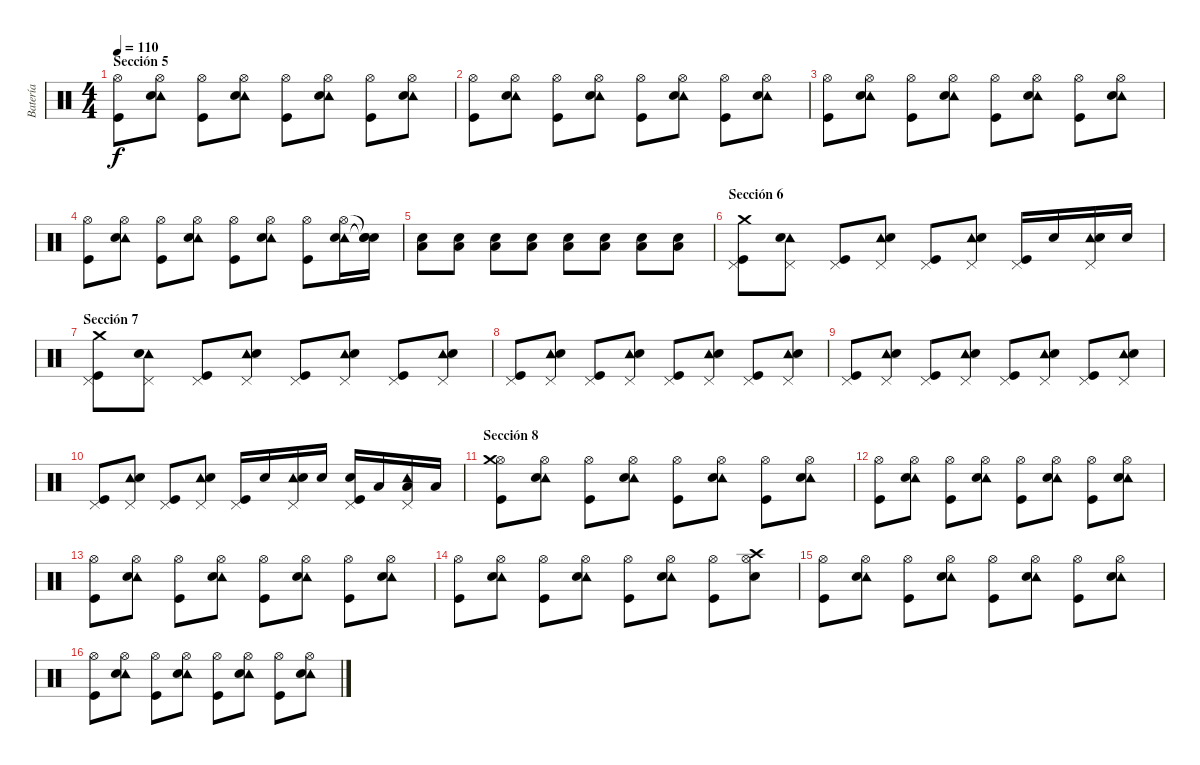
\track ("Batería" "Batería") {instrument percussion}
\staff {score}
\articulation defaults
\ts (4 4)
\section ("" "Sección 5")
\tempo 110
\clef neutral
\ks c
("Hi-Hat (open)" "Kick (hit)").8{dy f} ("Hi-Hat (open)" "Tambourine (hit)" "Electric Snare (hit)").8 ("Hi-Hat (open)" "Kick (hit)").8 ("Hi-Hat (open)" "Tambourine (hit)" "Electric Snare (hit)").8 ("Hi-Hat (open)" "Kick (hit)").8 ("Hi-Hat (open)" "Tambourine (hit)" "Electric Snare (hit)").8 ("Hi-Hat (open)" "Kick (hit)").8 ("Hi-Hat (open)" "Tambourine (hit)" "Electric Snare (hit)").8 |
("Hi-Hat (open)" "Kick (hit)").8 ("Hi-Hat (open)" "Tambourine (hit)" "Electric Snare (hit)").8 ("Hi-Hat (open)" "Kick (hit)").8 ("Hi-Hat (open)" "Tambourine (hit)" "Electric Snare (hit)").8 ("Hi-Hat (open)" "Kick (hit)").8 ("Hi-Hat (open)" "Tambourine (hit)" "Electric Snare (hit)").8 ("Hi-Hat (open)" "Kick (hit)").8 ("Hi-Hat (open)" "Tambourine (hit)" "Electric Snare (hit)").8 |
("Hi-Hat (open)" "Kick (hit)").8 ("Hi-Hat (open)" "Tambourine (hit)" "Electric Snare (hit)").8 ("Hi-Hat (open)" "Kick (hit)").8 ("Hi-Hat (open)" "Tambourine (hit)" "Electric Snare (hit)").8 ("Hi-Hat (open)" "Kick (hit)").8 ("Hi-Hat (open)" "Tambourine (hit)" "Electric Snare (hit)").8 ("Hi-Hat (open)" "Kick (hit)").8 ("Hi-Hat (open)" "Tambourine (hit)" "Electric Snare (hit)").8 |
("Hi-Hat (open)" "Kick (hit)").8 ("Hi-Hat (open)" "Tambourine (hit)" "Electric Snare (hit)").8 ("Hi-Hat (open)" "Kick (hit)").8 ("Hi-Hat (open)" "Tambourine (hit)" "Electric Snare (hit)").8 ("Hi-Hat (open)" "Kick (hit)").8 ("Hi-Hat (open)" "Tambourine (hit)" "Electric Snare (hit)").8 ("Hi-Hat (open)" "Kick (hit)").8 ("Hi-Hat (open)" "Tambourine (hit)" "Electric Snare (hit)").16 ("Snare (hit)"{t} "Snare (hit)"{t} "Snare (hit)"{t}).16{volume 5} |
("Low Tom (hit)" "Electric Snare (hit)").8 ("Low Tom (hit)" "Electric Snare (hit)").8{volume 12} ("Low Tom (hit)" "Electric Snare (hit)").8 ("Low Tom (hit)" "Electric Snare (hit)").8 ("Low Tom (hit)" "Electric Snare (hit)").8 ("Low Tom (hit)" "Electric Snare (hit)").8 ("Low Tom (hit)" "Electric Snare (hit)").8 ("Low Tom (hit)" "Electric Snare (hit)").8 |
\section ("" "Sección 6")
("Pedal Hi-Hat (hit)" "Crash medium (hit)" "Kick (hit)").8 ("Pedal Hi-Hat (hit)" "Tambourine (hit)" "Electric Snare (hit)").8 ("Pedal Hi-Hat (hit)" "Kick (hit)").8 ("Pedal Hi-Hat (hit)" "Tambourine (hit)" "Electric Snare (hit)").8 ("Pedal Hi-Hat (hit)" "Kick (hit)").8 ("Pedal Hi-Hat (hit)" "Tambourine (hit)" "Electric Snare (hit)").8 ("Pedal Hi-Hat (hit)" "Kick (hit)").16 "Electric Snare (hit)".16 ("Pedal Hi-Hat (hit)" "Tambourine (hit)" "Electric Snare (hit)").16 "Electric Snare (hit)".16 |
\section ("" "Sección 7")
("Pedal Hi-Hat (hit)" "Crash medium (hit)" "Kick (hit)").8 ("Pedal Hi-Hat (hit)" "Tambourine (hit)" "Electric Snare (hit)").8 ("Pedal Hi-Hat (hit)" "Kick (hit)").8 ("Pedal Hi-Hat (hit)" "Tambourine (hit)" "Electric Snare (hit)").8 ("Pedal Hi-Hat (hit)" "Kick (hit)").8 ("Pedal Hi-Hat (hit)" "Tambourine (hit)" "Electric Snare (hit)").8 ("Pedal Hi-Hat (hit)" "Kick (hit)").8 ("Pedal Hi-Hat (hit)" "Tambourine (hit)" "Electric Snare (hit)").8 |
("Pedal Hi-Hat (hit)" "Kick (hit)").8 ("Pedal Hi-Hat (hit)" "Tambourine (hit)" "Electric Snare (hit)").8 ("Pedal Hi-Hat (hit)" "Kick (hit)").8 ("Pedal Hi-Hat (hit)" "Tambourine (hit)" "Electric Snare (hit)").8 ("Pedal Hi-Hat (hit)" "Kick (hit)").8 ("Pedal Hi-Hat (hit)" "Tambourine (hit)" "Electric Snare (hit)").8 ("Pedal Hi-Hat (hit)" "Kick (hit)").8 ("Pedal Hi-Hat (hit)" "Tambourine (hit)" "Electric Snare (hit)").8 |
("Pedal Hi-Hat (hit)" "Kick (hit)").8 ("Pedal Hi-Hat (hit)" "Tambourine (hit)" "Electric Snare (hit)").8 ("Pedal Hi-Hat (hit)" "Kick (hit)").8 ("Pedal Hi-Hat (hit)" "Tambourine (hit)" "Electric Snare (hit)").8 ("Pedal Hi-Hat (hit)" "Kick (hit)").8 ("Pedal Hi-Hat (hit)" "Tambourine (hit)" "Electric Snare (hit)").8 ("Pedal Hi-Hat (hit)" "Kick (hit)").8 ("Pedal Hi-Hat (hit)" "Tambourine (hit)" "Electric Snare (hit)").8 |
("Pedal Hi-Hat (hit)" "Kick (hit)").8 ("Pedal Hi-Hat (hit)" "Tambourine (hit)" "Electric Snare (hit)").8 ("Pedal Hi-Hat (hit)" "Kick (hit)").8 ("Pedal Hi-Hat (hit)" "Tambourine (hit)" "Electric Snare (hit)").8 ("Pedal Hi-Hat (hit)" "Kick (hit)").16 "Electric Snare (hit)".16 ("Pedal Hi-Hat (hit)" "Tambourine (hit)" "Electric Snare (hit)").16 "Electric Snare (hit)".16 ("Pedal Hi-Hat (hit)" "Electric Snare (hit)" "Kick (hit)").16 "Low Tom (hit)".16 ("Pedal Hi-Hat (hit)" "Tambourine (hit)" "Low Tom (hit)").16 "Low Tom (hit)".16 |
\section ("" "Sección 8")
("Hi-Hat (open)" "Crash medium (hit)" "Kick (hit)").8 ("Hi-Hat (open)" "Tambourine (hit)" "Electric Snare (hit)").8 ("Hi-Hat (open)" "Kick (hit)").8 ("Hi-Hat (open)" "Tambourine (hit)" "Electric Snare (hit)").8 ("Hi-Hat (open)" "Kick (hit)").8 ("Hi-Hat (open)" "Tambourine (hit)" "Electric Snare (hit)").8 ("Hi-Hat (open)" "Kick (hit)").8 ("Hi-Hat (open)" "Tambourine (hit)" "Electric Snare (hit)").8 |
("Hi-Hat (open)" "Kick (hit)").8 ("Hi-Hat (open)" "Tambourine (hit)" "Electric Snare (hit)").8 ("Hi-Hat (open)" "Kick (hit)").8 ("Hi-Hat (open)" "Tambourine (hit)" "Electric Snare (hit)").8 ("Hi-Hat (open)" "Kick (hit)").8 ("Hi-Hat (open)" "Tambourine (hit)" "Electric Snare (hit)").8 ("Hi-Hat (open)" "Kick (hit)").8 ("Hi-Hat (open)" "Tambourine (hit)" "Electric Snare (hit)").8 |
("Hi-Hat (open)" "Kick (hit)").8 ("Hi-Hat (open)" "Tambourine (hit)" "Electric Snare (hit)").8 ("Hi-Hat (open)" "Kick (hit)").8 ("Hi-Hat (open)" "Tambourine (hit)" "Electric Snare (hit)").8 ("Hi-Hat (open)" "Kick (hit)").8 ("Hi-Hat (open)" "Tambourine (hit)" "Electric Snare (hit)").8 ("Hi-Hat (open)" "Kick (hit)").8 ("Hi-Hat (open)" "Tambourine (hit)" "Electric Snare (hit)").8 |
("Hi-Hat (open)" "Kick (hit)").8 ("Hi-Hat (open)" "Tambourine (hit)" "Electric Snare (hit)").8 ("Hi-Hat (open)" "Kick (hit)").8 ("Hi-Hat (open)" "Tambourine (hit)" "Electric Snare (hit)").8 ("Hi-Hat (open)" "Kick (hit)").8 ("Hi-Hat (open)" "Tambourine (hit)" "Electric Snare (hit)").8 ("Hi-Hat (open)" "Kick (hit)").8 ("Hi-Hat (open)" "Crash high (hit)" "Electric Snare (hit)").8 |
("Hi-Hat (open)" "Kick (hit)").8 ("Hi-Hat (open)" "Tambourine (hit)" "Electric Snare (hit)").8 ("Hi-Hat (open)" "Kick (hit)").8 ("Hi-Hat (open)" "Tambourine (hit)" "Electric Snare (hit)").8 ("Hi-Hat (open)" "Kick (hit)").8 ("Hi-Hat (open)" "Tambourine (hit)" "Electric Snare (hit)").8 ("Hi-Hat (open)" "Kick (hit)").8 ("Hi-Hat (open)" "Tambourine (hit)" "Electric Snare (hit)").8 |
("Hi-Hat (open)" "Kick (hit)").8 ("Hi-Hat (open)" "Tambourine (hit)" "Electric Snare (hit)").8 ("Hi-Hat (open)" "Kick (hit)").8 ("Hi-Hat (open)" "Tambourine (hit)" "Electric Snare (hit)").8 ("Hi-Hat (open)" "Kick (hit)").8 ("Hi-Hat (open)" "Tambourine (hit)" "Electric Snare (hit)").8 ("Hi-Hat (open)" "Kick (hit)").8 ("Hi-Hat (open)" "Tambourine (hit)" "Electric Snare (hit)").8
